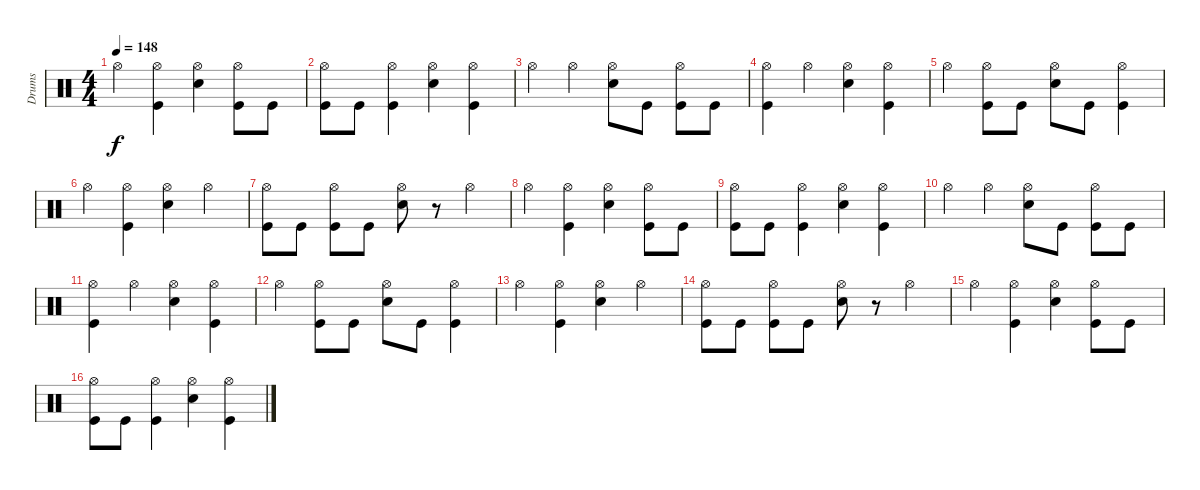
\track ("Drums" "Drums") {instrument percussion}
\staff {score}
\articulation defaults
\ts (4 4)
\tempo 148
\clef neutral
\ks c "Hi-Hat (open)".4{dy f}
("Hi-Hat (open)" "Kick (hit)").4 ("Hi-Hat (open)" "Snare (hit) 2").4 ("Hi-Hat (open)" "Kick (hit)").8 "Kick (hit)".8 |
("Hi-Hat (open)" "Kick (hit)").8 "Kick (hit)".8 ("Hi-Hat (open)" "Kick (hit)").4 ("Hi-Hat (open)" "Snare (hit) 2").4 ("Hi-Hat (open)" "Kick (hit)").4 |
"Hi-Hat (open)".4 "Hi-Hat (open)".4 ("Hi-Hat (open)" "Snare (hit) 2").8 "Kick (hit)".8 ("Hi-Hat (open)" "Kick (hit)").8 "Kick (hit)".8 |
("Hi-Hat (open)" "Kick (hit)").4 "Hi-Hat (open)".4 ("Hi-Hat (open)" "Snare (hit) 2").4 ("Hi-Hat (open)" "Kick (hit)").4 |
"Hi-Hat (open)".4 ("Hi-Hat (open)" "Kick (hit)").8 "Kick (hit)".8 ("Hi-Hat (open)" "Snare (hit) 2").8 "Kick (hit)".8 ("Hi-Hat (open)" "Kick (hit)").4 |
"Hi-Hat (open)".4 ("Hi-Hat (open)" "Kick (hit)").4 ("Hi-Hat (open)" "Snare (hit) 2").4 "Hi-Hat (open)".4 |
("Hi-Hat (open)" "Kick (hit)").8 "Kick (hit)".8 ("Hi-Hat (open)" "Kick (hit)").8 "Kick (hit)".8 ("Hi-Hat (open)" "Snare (hit) 2").8 r.8 "Hi-Hat (open)".4 |
"Hi-Hat (open)".4 ("Hi-Hat (open)" "Kick (hit)").4 ("Hi-Hat (open)" "Snare (hit) 2").4 ("Hi-Hat (open)" "Kick (hit)").8 "Kick (hit)".8 |
("Hi-Hat (open)" "Kick (hit)").8 "Kick (hit)".8 ("Hi-Hat (open)" "Kick (hit)").4 ("Hi-Hat (open)" "Snare (hit) 2").4 ("Hi-Hat (open)" "Kick (hit)").4 |
"Hi-Hat (open)".4 "Hi-Hat (open)".4 ("Hi-Hat (open)" "Snare (hit) 2").8 "Kick (hit)".8 ("Hi-Hat (open)" "Kick (hit)").8 "Kick (hit)".8 |
("Hi-Hat (open)" "Kick (hit)").4 "Hi-Hat (open)".4 ("Hi-Hat (open)" "Snare (hit) 2").4 ("Hi-Hat (open)" "Kick (hit)").4 |
"Hi-Hat (open)".4 ("Hi-Hat (open)" "Kick (hit)").8 "Kick (hit)".8 ("Hi-Hat (open)" "Snare (hit) 2").8 "Kick (hit)".8 ("Hi-Hat (open)" "Kick (hit)").4 |
"Hi-Hat (open)".4 ("Hi-Hat (open)" "Kick (hit)").4 ("Hi-Hat (open)" "Snare (hit) 2").4 "Hi-Hat (open)".4 |
("Hi-Hat (open)" "Kick (hit)").8 "Kick (hit)".8 ("Hi-Hat (open)" "Kick (hit)").8 "Kick (hit)".8 ("Hi-Hat (open)" "Snare (hit) 2").8 r.8 "Hi-Hat (open)".4 |
"Hi-Hat (open)".4 ("Hi-Hat (open)" "Kick (hit)").4 ("Hi-Hat (open)" "Snare (hit) 2").4 ("Hi-Hat (open)" "Kick (hit)").8 "Kick (hit)".8 |
("Hi-Hat (open)" "Kick (hit)").8 "Kick (hit)".8 ("Hi-Hat (open)" "Kick (hit)").4 ("Hi-Hat (open)" "Snare (hit) 2").4 ("Hi-Hat (open)" "Kick (hit)").4
